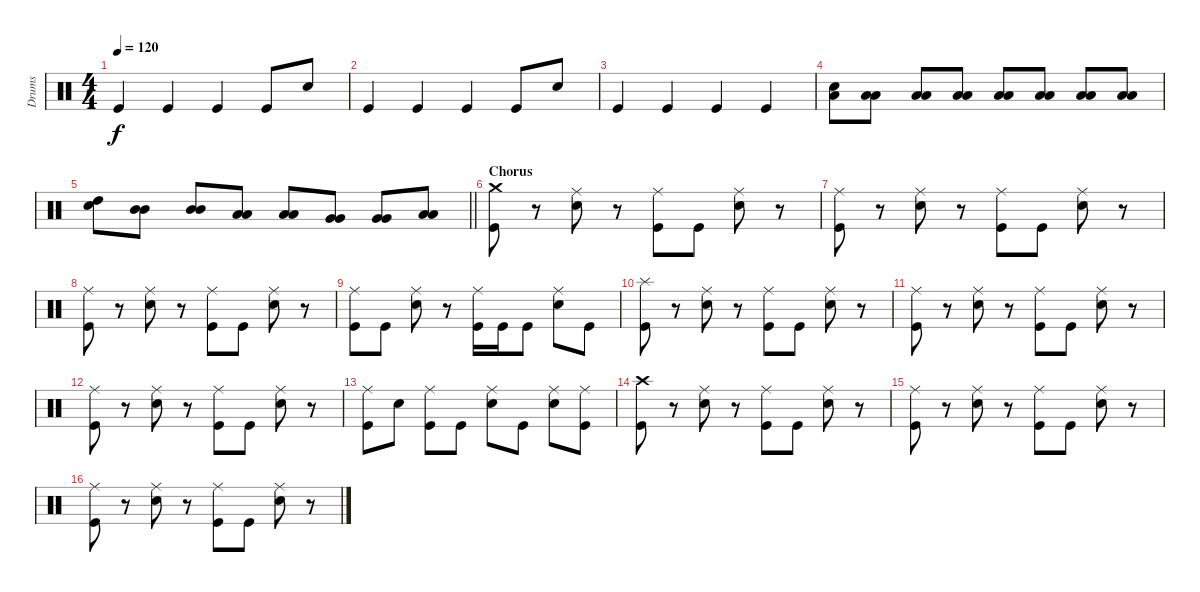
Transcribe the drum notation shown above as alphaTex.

\track ("Drums" "Drums") {instrument percussion}
\staff {score}
\articulation defaults
\ts (4 4)
\tempo 120
\clef neutral
\ks c "Kick (hit)".4{dy f} "Kick (hit)".4 "Kick (hit)".4 "Kick (hit)".8 "Snare (hit) 2".8
|
"Kick (hit)".4 "Kick (hit)".4 "Kick (hit)".4 "Kick (hit)".8 "Snare (hit) 2".8 |
"Kick (hit)".4 "Kick (hit)".4 "Kick (hit)".4 "Kick (hit)".4 |
("Snare (hit) 2" "Low Floor Tom (hit)").8 ("Low Floor Tom (hit)" "Low Floor Tom (hit)").8 ("Low Floor Tom (hit)" "Low Floor Tom (hit)").8 ("Low Floor Tom (hit)" "Low Floor Tom (hit)").8 ("Low Floor Tom (hit)" "Low Floor Tom (hit)").8 ("Low Floor Tom (hit)" "Low Floor Tom (hit)").8 ("Low Floor Tom (hit)" "Low Floor Tom (hit)").8 ("Low Floor Tom (hit)" "Low Floor Tom (hit)").8 |
\barLineRight lightlight
("Snare (hit) 2" "High Tom (hit)").8 ("Mid Tom (hit)" "Mid Tom (hit)").8 ("Mid Tom (hit)" "Mid Tom (hit)").8 ("Low Tom (hit)" "Low Tom (hit)").8 ("Low Tom (hit)" "Low Tom (hit)").8 ("Very Low Tom (hit)" "Very Low Tom (hit)").8 ("Very Low Tom (hit)" "Very Low Tom (hit)").8 ("Low Floor Tom (hit)" "Low Floor Tom (hit)").8 |
\section ("" "Chorus")
("Kick (hit)" "Crash medium (hit)").8 r.8 ("Snare (hit) 2" "Ride (middle)").8 r.8 ("Kick (hit)" "Ride (middle)").8 "Kick (hit)".8 ("Snare (hit) 2" "Ride (middle)").8 r.8 |
("Kick (hit)" "Ride (middle)").8 r.8 ("Snare (hit) 2" "Ride (middle)").8 r.8 ("Kick (hit)" "Ride (middle)").8 "Kick (hit)".8 ("Snare (hit) 2" "Ride (middle)").8 r.8 |
("Kick (hit)" "Ride (middle)").8 r.8 ("Snare (hit) 2" "Ride (middle)").8 r.8 ("Kick (hit)" "Ride (middle)").8 "Kick (hit)".8 ("Snare (hit) 2" "Ride (middle)").8 r.8 |
("Kick (hit)" "Ride (middle)").8 "Kick (hit)".8 ("Snare (hit) 2" "Ride (middle)").8 r.8 ("Kick (hit)" "Ride (middle)").16 "Kick (hit)".16 "Kick (hit)".8 ("Snare (hit) 2" "Ride (middle)").8 "Kick (hit)".8 |
("Kick (hit)" "Splash (hit)").8 r.8 ("Snare (hit) 2" "Ride (middle)").8 r.8 ("Kick (hit)" "Ride (middle)").8 "Kick (hit)".8 ("Snare (hit) 2" "Ride (middle)").8 r.8 |
("Kick (hit)" "Ride (middle)").8 r.8 ("Snare (hit) 2" "Ride (middle)").8 r.8 ("Kick (hit)" "Ride (middle)").8 "Kick (hit)".8 ("Snare (hit) 2" "Ride (middle)").8 r.8 |
("Kick (hit)" "Ride (middle)").8 r.8 ("Snare (hit) 2" "Ride (middle)").8 r.8 ("Kick (hit)" "Ride (middle)").8 "Kick (hit)".8 ("Snare (hit) 2" "Ride (middle)").8 r.8 |
("Kick (hit)" "Ride (middle)").8 "Snare (hit) 2".8 ("Kick (hit)" "Ride (middle)").8 "Kick (hit)".8 ("Snare (hit) 2" "Ride (middle)").8 "Kick (hit)".8 ("Snare (hit) 2" "Ride (middle)").8 ("Kick (hit)" "Ride (middle)").8 |
("Kick (hit)" "Crash high (hit)").8 r.8 ("Snare (hit) 2" "Ride (middle)").8 r.8 ("Kick (hit)" "Ride (middle)").8 "Kick (hit)".8 ("Snare (hit) 2" "Ride (middle)").8 r.8 |
("Kick (hit)" "Ride (middle)").8 r.8 ("Snare (hit) 2" "Ride (middle)").8 r.8 ("Kick (hit)" "Ride (middle)").8 "Kick (hit)".8 ("Snare (hit) 2" "Ride (middle)").8 r.8 |
("Kick (hit)" "Ride (middle)").8 r.8 ("Snare (hit) 2" "Ride (middle)").8 r.8 ("Kick (hit)" "Ride (middle)").8 "Kick (hit)".8 ("Snare (hit) 2" "Ride (middle)").8 r.8
